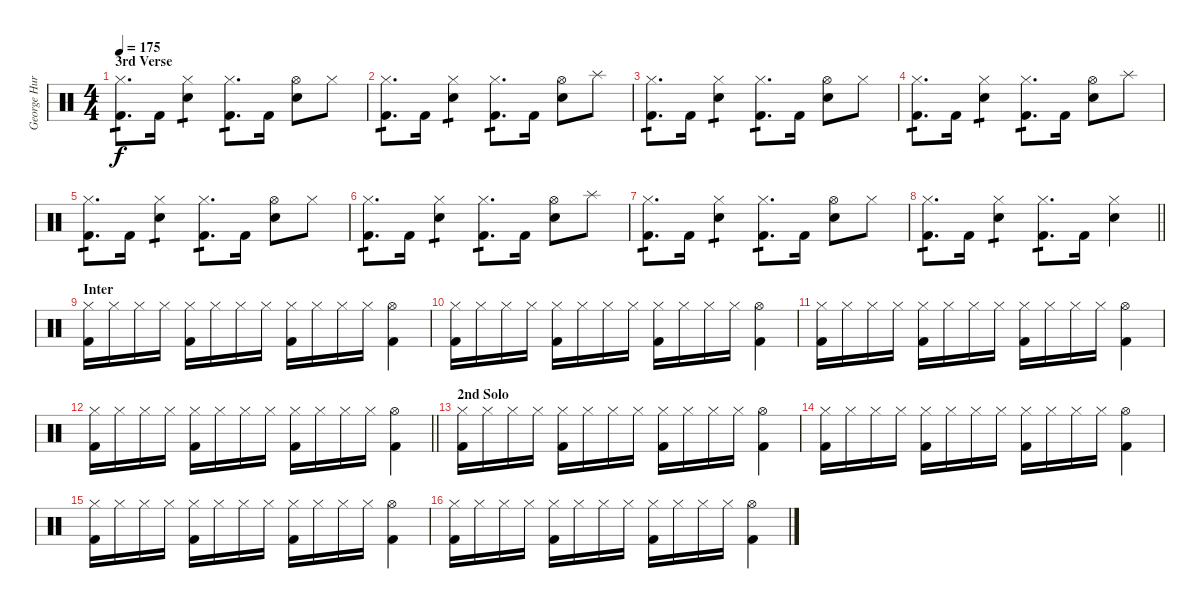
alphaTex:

\track ("George Hurley [Drums]" "George Hur") {instrument percussion}
\staff {score}
\articulation defaults
\ts (4 4)
\section ("" "3rd Verse")
\tempo 175
\clef neutral
\ks c
("Hi-Hat (closed)" "Kick (hit) 2").8{d tp 1 dy f} "Kick (hit) 2".16 ("Hi-Hat (closed)" "Electric Snare (hit)").4{tp 1} ("Hi-Hat (closed)" "Kick (hit) 2").8{d tp 1} "Kick (hit) 2".16 ("Hi-Hat (open)" "Electric Snare (hit)").8 "Hi-Hat (closed)".8 |
("Hi-Hat (closed)" "Kick (hit) 2").8{d tp 1} "Kick (hit) 2".16 ("Hi-Hat (closed)" "Electric Snare (hit)").4{tp 1} ("Hi-Hat (closed)" "Kick (hit) 2").8{d tp 1} "Kick (hit) 2".16 ("Hi-Hat (open)" "Electric Snare (hit)").8 "Splash (hit)".8 |
("Hi-Hat (closed)" "Kick (hit) 2").8{d tp 1} "Kick (hit) 2".16 ("Hi-Hat (closed)" "Electric Snare (hit)").4{tp 1} ("Hi-Hat (closed)" "Kick (hit) 2").8{d tp 1} "Kick (hit) 2".16 ("Hi-Hat (open)" "Electric Snare (hit)").8 "Hi-Hat (closed)".8 |
("Hi-Hat (closed)" "Kick (hit) 2").8{d tp 1} "Kick (hit) 2".16 ("Hi-Hat (closed)" "Electric Snare (hit)").4{tp 1} ("Hi-Hat (closed)" "Kick (hit) 2").8{d tp 1} "Kick (hit) 2".16 ("Hi-Hat (open)" "Electric Snare (hit)").8 "Splash (hit)".8 |
("Hi-Hat (closed)" "Kick (hit) 2").8{d tp 1} "Kick (hit) 2".16 ("Hi-Hat (closed)" "Electric Snare (hit)").4{tp 1} ("Hi-Hat (closed)" "Kick (hit) 2").8{d tp 1} "Kick (hit) 2".16 ("Hi-Hat (open)" "Electric Snare (hit)").8 "Hi-Hat (closed)".8 |
("Hi-Hat (closed)" "Kick (hit) 2").8{d tp 1} "Kick (hit) 2".16 ("Hi-Hat (closed)" "Electric Snare (hit)").4{tp 1} ("Hi-Hat (closed)" "Kick (hit) 2").8{d tp 1} "Kick (hit) 2".16 ("Hi-Hat (open)" "Electric Snare (hit)").8 "Splash (hit)".8 |
("Hi-Hat (closed)" "Kick (hit) 2").8{d tp 1} "Kick (hit) 2".16 ("Hi-Hat (closed)" "Electric Snare (hit)").4{tp 1} ("Hi-Hat (closed)" "Kick (hit) 2").8{d tp 1} "Kick (hit) 2".16 ("Hi-Hat (open)" "Electric Snare (hit)").8 "Hi-Hat (closed)".8 |
\barLineRight lightlight
("Hi-Hat (closed)" "Kick (hit) 2").8{d tp 1} "Kick (hit) 2".16 ("Hi-Hat (closed)" "Electric Snare (hit)").4{tp 1} ("Hi-Hat (closed)" "Kick (hit) 2").8{d tp 1} "Kick (hit) 2".16 ("Hi-Hat (closed)" "Electric Snare (hit)").4 |
\section ("" "Inter")
("Hi-Hat (closed)" "Kick (hit) 2").16 "Hi-Hat (closed)".16 "Hi-Hat (closed)".16 "Hi-Hat (closed)".16 ("Hi-Hat (closed)" "Kick (hit) 2").16 "Hi-Hat (closed)".16 "Hi-Hat (closed)".16 "Hi-Hat (closed)".16 ("Hi-Hat (closed)" "Kick (hit) 2").16 "Hi-Hat (closed)".16 "Hi-Hat (closed)".16 "Hi-Hat (closed)".16 ("Hi-Hat (open)" "Kick (hit) 2").4 |
("Hi-Hat (closed)" "Kick (hit) 2").16 "Hi-Hat (closed)".16 "Hi-Hat (closed)".16 "Hi-Hat (closed)".16 ("Hi-Hat (closed)" "Kick (hit) 2").16 "Hi-Hat (closed)".16 "Hi-Hat (closed)".16 "Hi-Hat (closed)".16 ("Hi-Hat (closed)" "Kick (hit) 2").16 "Hi-Hat (closed)".16 "Hi-Hat (closed)".16 "Hi-Hat (closed)".16 ("Hi-Hat (open)" "Kick (hit) 2").4 |
("Hi-Hat (closed)" "Kick (hit) 2").16 "Hi-Hat (closed)".16 "Hi-Hat (closed)".16 "Hi-Hat (closed)".16 ("Hi-Hat (closed)" "Kick (hit) 2").16 "Hi-Hat (closed)".16 "Hi-Hat (closed)".16 "Hi-Hat (closed)".16 ("Hi-Hat (closed)" "Kick (hit) 2").16 "Hi-Hat (closed)".16 "Hi-Hat (closed)".16 "Hi-Hat (closed)".16 ("Hi-Hat (open)" "Kick (hit) 2").4 |
\barLineRight lightlight
("Hi-Hat (closed)" "Kick (hit) 2").16 "Hi-Hat (closed)".16 "Hi-Hat (closed)".16 "Hi-Hat (closed)".16 ("Hi-Hat (closed)" "Kick (hit) 2").16 "Hi-Hat (closed)".16 "Hi-Hat (closed)".16 "Hi-Hat (closed)".16 ("Hi-Hat (closed)" "Kick (hit) 2").16 "Hi-Hat (closed)".16 "Hi-Hat (closed)".16 "Hi-Hat (closed)".16 ("Hi-Hat (open)" "Kick (hit) 2").4 |
\section ("" "2nd Solo")
("Hi-Hat (closed)" "Kick (hit) 2").16 "Hi-Hat (closed)".16 "Hi-Hat (closed)".16 "Hi-Hat (closed)".16 ("Hi-Hat (closed)" "Kick (hit) 2").16 "Hi-Hat (closed)".16 "Hi-Hat (closed)".16 "Hi-Hat (closed)".16 ("Hi-Hat (closed)" "Kick (hit) 2").16 "Hi-Hat (closed)".16 "Hi-Hat (closed)".16 "Hi-Hat (closed)".16 ("Hi-Hat (open)" "Kick (hit) 2").4 |
("Hi-Hat (closed)" "Kick (hit) 2").16 "Hi-Hat (closed)".16 "Hi-Hat (closed)".16 "Hi-Hat (closed)".16 ("Hi-Hat (closed)" "Kick (hit) 2").16 "Hi-Hat (closed)".16 "Hi-Hat (closed)".16 "Hi-Hat (closed)".16 ("Hi-Hat (closed)" "Kick (hit) 2").16 "Hi-Hat (closed)".16 "Hi-Hat (closed)".16 "Hi-Hat (closed)".16 ("Hi-Hat (open)" "Kick (hit) 2").4 |
("Hi-Hat (closed)" "Kick (hit) 2").16 "Hi-Hat (closed)".16 "Hi-Hat (closed)".16 "Hi-Hat (closed)".16 ("Hi-Hat (closed)" "Kick (hit) 2").16 "Hi-Hat (closed)".16 "Hi-Hat (closed)".16 "Hi-Hat (closed)".16 ("Hi-Hat (closed)" "Kick (hit) 2").16 "Hi-Hat (closed)".16 "Hi-Hat (closed)".16 "Hi-Hat (closed)".16 ("Hi-Hat (open)" "Kick (hit) 2").4 |
("Hi-Hat (closed)" "Kick (hit) 2").16 "Hi-Hat (closed)".16 "Hi-Hat (closed)".16 "Hi-Hat (closed)".16 ("Hi-Hat (closed)" "Kick (hit) 2").16 "Hi-Hat (closed)".16 "Hi-Hat (closed)".16 "Hi-Hat (closed)".16 ("Hi-Hat (closed)" "Kick (hit) 2").16 "Hi-Hat (closed)".16 "Hi-Hat (closed)".16 "Hi-Hat (closed)".16 ("Hi-Hat (open)" "Kick (hit) 2").4
